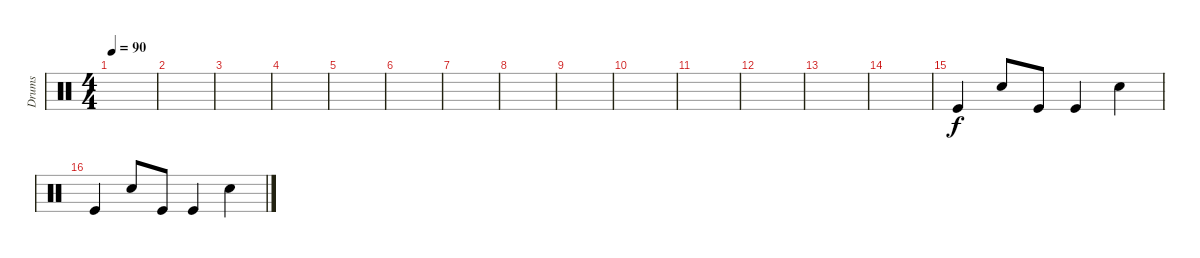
\track ("Drums" "Drums") {instrument percussion}
\staff {score}
\articulation defaults
\ts (4 4)
\tempo 90
\clef neutral
\ks c
|
|
|
|
|
|
|
|
|
|
|
|
|
|
"Kick (hit)".4 "Snare (hit) 2".8 "Kick (hit)".8 "Kick (hit)".4 "Snare (hit) 2".4 |
"Kick (hit)".4 "Snare (hit) 2".8 "Kick (hit)".8 "Kick (hit)".4 "Snare (hit) 2".4
